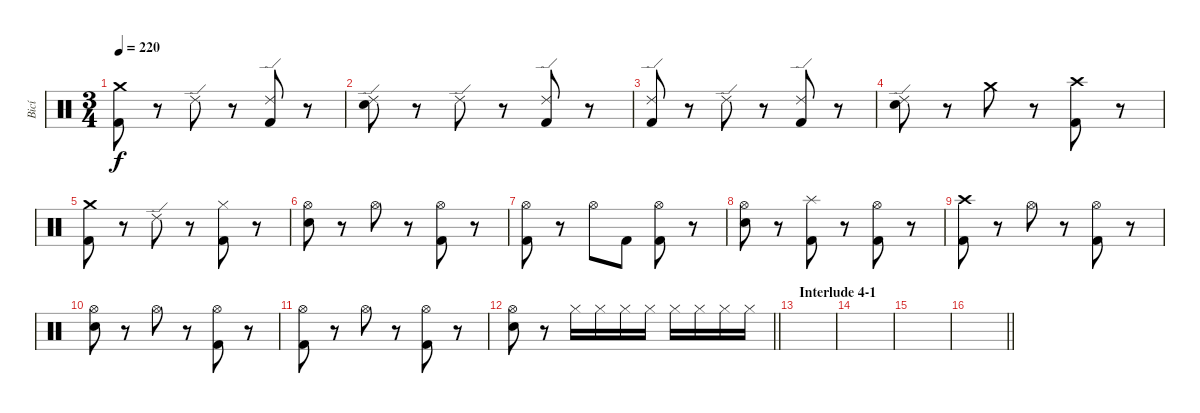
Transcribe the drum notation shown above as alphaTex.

\track ("Bicí" "Bicí") {instrument percussion}
\staff {score}
\articulation defaults
\ts (3 4)
\tempo 220
\clef neutral
\ks c
("Crash medium (hit)" "Kick (hit) 2").8{dy f} r.8 "Ride (edge) 2".8 r.8 ("Ride (edge) 2" "Kick (hit) 2").8 r.8 |
("Ride (edge) 2" "Electric Snare (hit)").8 r.8 "Ride (edge) 2".8 r.8 ("Ride (edge) 2" "Kick (hit) 2").8 r.8 |
("Ride (edge) 2" "Kick (hit) 2").8 r.8 "Ride (edge) 2".8 r.8 ("Ride (edge) 2" "Kick (hit) 2").8 r.8 |
("Ride (edge) 2" "Electric Snare (hit)").8 r.8 "Crash medium (hit)".8 r.8 ("Crash high (hit)" "Kick (hit) 2").8 r.8 |
("Crash medium (hit)" "Kick (hit) 2").8 r.8 "Ride (edge) 2".8 r.8 ("Hi-Hat (closed)" "Kick (hit) 2").8 r.8 |
("Hi-Hat (open)" "Electric Snare (hit)").8 r.8 "Hi-Hat (open)".8 r.8 ("Hi-Hat (open)" "Kick (hit) 2").8 r.8 |
("Hi-Hat (open)" "Kick (hit) 2").8 r.8 "Hi-Hat (open)".8 "Kick (hit) 2".8 ("Hi-Hat (open)" "Kick (hit) 2").8 r.8 |
("Hi-Hat (open)" "Electric Snare (hit)").8 r.8 ("Splash (hit)" "Kick (hit) 2").8 r.8 ("Hi-Hat (open)" "Kick (hit) 2").8 r.8 |
("Crash high (hit)" "Kick (hit) 2").8 r.8 "Hi-Hat (open)".8 r.8 ("Hi-Hat (open)" "Kick (hit) 2").8 r.8 |
("Hi-Hat (open)" "Electric Snare (hit)").8 r.8 "Hi-Hat (open)".8 r.8 ("Hi-Hat (open)" "Kick (hit) 2").8 r.8 |
("Hi-Hat (open)" "Kick (hit) 2").8 r.8 "Hi-Hat (open)".8 r.8 ("Hi-Hat (open)" "Kick (hit) 2").8 r.8 |
\barLineRight lightlight
("Hi-Hat (open)" "Electric Snare (hit)").8 r.8 "Hi-Hat (closed)".16 "Hi-Hat (closed)".16 "Hi-Hat (closed)".16 "Hi-Hat (closed)".16 "Hi-Hat (closed)".16 "Hi-Hat (closed)".16 "Hi-Hat (closed)".16 "Hi-Hat (closed)".16 |
\section ("" "Interlude 4-1")
|
|
|
\barLineRight lightlight
